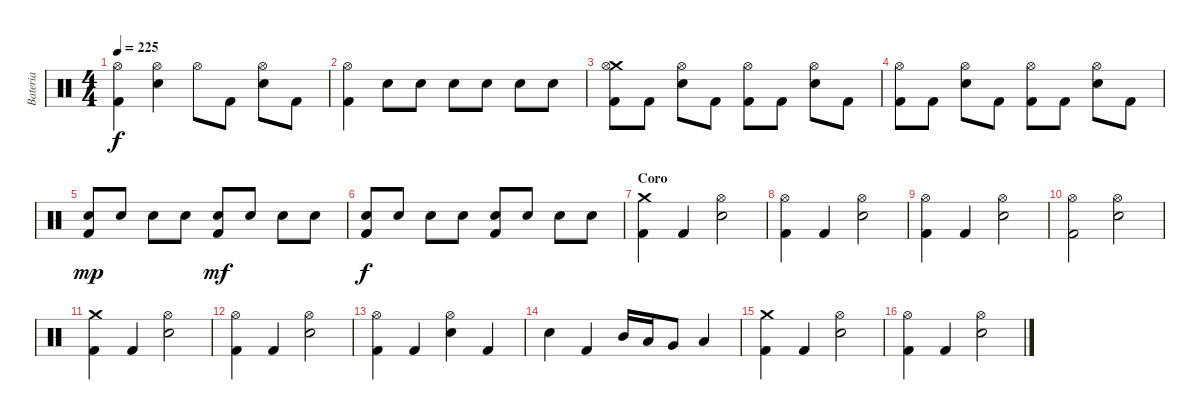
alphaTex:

\track ("Bateria" "Bateria") {instrument percussion}
\staff {score}
\articulation defaults
\ts (4 4)
\tempo 225
\clef neutral
\ks c
("Hi-Hat (open)" "Kick (hit) 2").4{dy f} ("Snare (hit) 2" "Hi-Hat (open)").4 "Hi-Hat (open)".8 "Kick (hit) 2".8 ("Hi-Hat (open)" "Snare (hit) 2").8 "Kick (hit) 2".8 |
("Hi-Hat (open)" "Kick (hit) 2").4 "Snare (hit) 2".8 "Snare (hit) 2".8 "Snare (hit) 2".8 "Snare (hit) 2".8 "Snare (hit) 2".8 "Snare (hit) 2".8 |
("Crash medium (hit)" "Hi-Hat (open)" "Kick (hit) 2").8 "Kick (hit) 2".8 ("Hi-Hat (open)" "Snare (hit) 2").8 "Kick (hit) 2".8 ("Hi-Hat (open)" "Kick (hit) 2").8 "Kick (hit) 2".8 ("Hi-Hat (open)" "Snare (hit) 2").8 "Kick (hit) 2".8 |
("Hi-Hat (open)" "Kick (hit) 2").8 "Kick (hit) 2".8 ("Hi-Hat (open)" "Snare (hit) 2").8 "Kick (hit) 2".8 ("Hi-Hat (open)" "Kick (hit) 2").8 "Kick (hit) 2".8 ("Hi-Hat (open)" "Snare (hit) 2").8 "Kick (hit) 2".8 |
("Snare (hit) 2" "Kick (hit) 2").8{dy mp} "Snare (hit) 2".8 "Snare (hit) 2".8 "Snare (hit) 2".8 ("Snare (hit) 2" "Kick (hit) 2").8{dy mf} "Snare (hit) 2".8 "Snare (hit) 2".8 "Snare (hit) 2".8 |
("Snare (hit) 2" "Kick (hit) 2").8{dy f} "Snare (hit) 2".8 "Snare (hit) 2".8 "Snare (hit) 2".8 ("Kick (hit) 2" "Snare (hit) 2").8 "Snare (hit) 2".8 "Snare (hit) 2".8 "Snare (hit) 2".8 |
\section ("" "Coro")
("Kick (hit) 2" "Crash medium (hit)").4 "Kick (hit) 2".4 ("Snare (hit) 2" "Hi-Hat (open)").2 |
("Kick (hit) 2" "Hi-Hat (open)").4 "Kick (hit) 2".4 ("Snare (hit) 2" "Hi-Hat (open)").2 |
("Kick (hit) 2" "Hi-Hat (open)").4 "Kick (hit) 2".4 ("Snare (hit) 2" "Hi-Hat (open)").2 |
("Kick (hit) 2" "Hi-Hat (open)").2 ("Snare (hit) 2" "Hi-Hat (open)").2 |
("Kick (hit) 2" "Crash medium (hit)").4 "Kick (hit) 2".4 ("Snare (hit) 2" "Hi-Hat (open)").2 |
("Kick (hit) 2" "Hi-Hat (open)").4 "Kick (hit) 2".4 ("Snare (hit) 2" "Hi-Hat (open)").2 |
("Kick (hit) 2" "Hi-Hat (open)").4 "Kick (hit) 2".4 ("Snare (hit) 2" "Hi-Hat (open)").4 "Kick (hit) 2".4 |
"Snare (hit) 2".4 "Kick (hit) 2".4 "Mid Tom (hit)".16 "Low Tom (hit)".16 "Very Low Tom (hit)".8 "Low Floor Tom (hit)".4 |
("Kick (hit) 2" "Crash medium (hit)").4 "Kick (hit) 2".4 ("Snare (hit) 2" "Hi-Hat (open)").2 |
("Kick (hit) 2" "Hi-Hat (open)").4 "Kick (hit) 2".4 ("Snare (hit) 2" "Hi-Hat (open)").2
